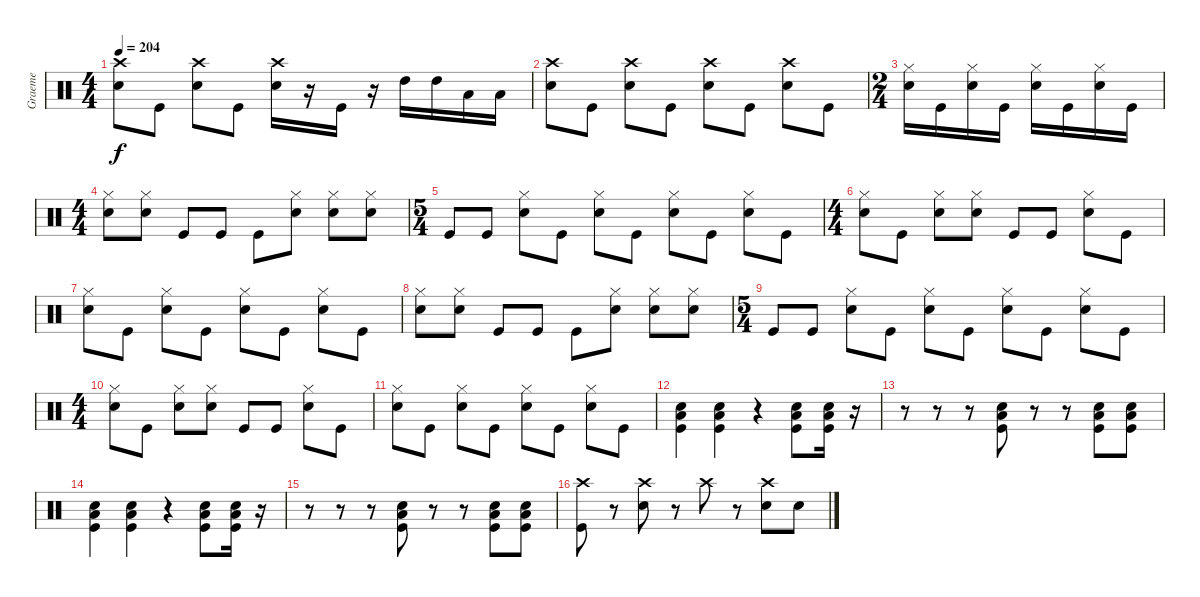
\track ("Graeme" "Graeme") {instrument percussion}
\staff {score}
\articulation defaults
\ts (4 4)
\tempo 204
\clef neutral
\ks c
("Crash high (hit)" "Snare (hit) 2").8{dy f} "Kick (hit)".8 ("Crash high (hit)" "Snare (hit) 2").8 "Kick (hit)".8 ("Crash high (hit)" "Snare (hit) 2").16 r.16 "Kick (hit)".16 r.16 "High Tom (hit)".16 "High Tom (hit)".16 "Low Floor Tom (hit)".16 "Low Floor Tom (hit)".16 |
("Crash high (hit)" "Snare (hit) 2").8 "Kick (hit)".8 ("Crash high (hit)" "Snare (hit) 2").8 "Kick (hit)".8 ("Crash high (hit)" "Snare (hit) 2").8 "Kick (hit)".8 ("Crash high (hit)" "Snare (hit) 2").8 "Kick (hit)".8 |
\ts (2 4)
("Hi-Hat (closed)" "Snare (hit) 2").16 "Kick (hit)".16 ("Hi-Hat (closed)" "Snare (hit) 2").16 "Kick (hit)".16 ("Hi-Hat (closed)" "Snare (hit) 2").16 "Kick (hit)".16 ("Hi-Hat (closed)" "Snare (hit) 2").16 "Kick (hit)".16 |
\ts (4 4)
("Hi-Hat (closed)" "Snare (hit) 2").8 ("Hi-Hat (closed)" "Snare (hit) 2").8 "Kick (hit)".8 "Kick (hit)".8 "Kick (hit)".8 ("Hi-Hat (closed)" "Snare (hit) 2").8 ("Hi-Hat (closed)" "Snare (hit) 2").8 ("Hi-Hat (closed)" "Snare (hit) 2").8 |
\ts (5 4)
"Kick (hit)".8 "Kick (hit)".8 ("Hi-Hat (closed)" "Snare (hit) 2").8 "Kick (hit)".8 ("Hi-Hat (closed)" "Snare (hit) 2").8 "Kick (hit)".8 ("Hi-Hat (closed)" "Snare (hit) 2").8 "Kick (hit)".8 ("Hi-Hat (closed)" "Snare (hit) 2").8 "Kick (hit)".8 |
\ts (4 4)
("Hi-Hat (closed)" "Snare (hit) 2").8 "Kick (hit)".8 ("Hi-Hat (closed)" "Snare (hit) 2").8 ("Hi-Hat (closed)" "Snare (hit) 2").8 "Kick (hit)".8 "Kick (hit)".8 ("Hi-Hat (closed)" "Snare (hit) 2").8 "Kick (hit)".8 |
("Hi-Hat (closed)" "Snare (hit) 2").8 "Kick (hit)".8 ("Hi-Hat (closed)" "Snare (hit) 2").8 "Kick (hit)".8 ("Hi-Hat (closed)" "Snare (hit) 2").8 "Kick (hit)".8 ("Hi-Hat (closed)" "Snare (hit) 2").8 "Kick (hit)".8 |
("Hi-Hat (closed)" "Snare (hit) 2").8 ("Hi-Hat (closed)" "Snare (hit) 2").8 "Kick (hit)".8 "Kick (hit)".8 "Kick (hit)".8 ("Hi-Hat (closed)" "Snare (hit) 2").8 ("Hi-Hat (closed)" "Snare (hit) 2").8 ("Hi-Hat (closed)" "Snare (hit) 2").8 |
\ts (5 4)
"Kick (hit)".8 "Kick (hit)".8 ("Hi-Hat (closed)" "Snare (hit) 2").8 "Kick (hit)".8 ("Hi-Hat (closed)" "Snare (hit) 2").8 "Kick (hit)".8 ("Hi-Hat (closed)" "Snare (hit) 2").8 "Kick (hit)".8 ("Hi-Hat (closed)" "Snare (hit) 2").8 "Kick (hit)".8 |
\ts (4 4)
("Hi-Hat (closed)" "Snare (hit) 2").8 "Kick (hit)".8 ("Hi-Hat (closed)" "Snare (hit) 2").8 ("Hi-Hat (closed)" "Snare (hit) 2").8 "Kick (hit)".8 "Kick (hit)".8 ("Hi-Hat (closed)" "Snare (hit) 2").8 "Kick (hit)".8 |
("Hi-Hat (closed)" "Snare (hit) 2").8 "Kick (hit)".8 ("Hi-Hat (closed)" "Snare (hit) 2").8 "Kick (hit)".8 ("Hi-Hat (closed)" "Snare (hit) 2").8 "Kick (hit)".8 ("Hi-Hat (closed)" "Snare (hit) 2").8 "Kick (hit)".8 |
("Snare (hit) 2" "Low Floor Tom (hit)" "Kick (hit)").4 ("Snare (hit) 2" "Low Floor Tom (hit)" "Kick (hit)").4 r.4 ("Snare (hit) 2" "Low Floor Tom (hit)" "Kick (hit)").8 ("Snare (hit) 2" "Low Floor Tom (hit)" "Kick (hit)").16 r.16 |
r.8 r.8 r.8 ("Snare (hit) 2" "Low Floor Tom (hit)" "Kick (hit)").8 r.8 r.8 ("Snare (hit) 2" "Low Floor Tom (hit)" "Kick (hit)").8 ("Snare (hit) 2" "Low Floor Tom (hit)" "Kick (hit)").8 |
("Snare (hit) 2" "Low Floor Tom (hit)" "Kick (hit)").4 ("Snare (hit) 2" "Low Floor Tom (hit)" "Kick (hit)").4 r.4 ("Snare (hit) 2" "Low Floor Tom (hit)" "Kick (hit)").8 ("Snare (hit) 2" "Low Floor Tom (hit)" "Kick (hit)").16 r.16 |
r.8 r.8 r.8 ("Snare (hit) 2" "Low Floor Tom (hit)" "Kick (hit)").8 r.8 r.8 ("Snare (hit) 2" "Low Floor Tom (hit)" "Kick (hit)").8 ("Snare (hit) 2" "Low Floor Tom (hit)" "Kick (hit)").8 |
("Crash high (hit)" "Kick (hit)").8 r.8 ("Crash high (hit)" "Snare (hit) 2").8 r.8 "Crash high (hit)".8 r.8 ("Crash high (hit)" "Snare (hit) 2").8 "Snare (hit) 2".8
